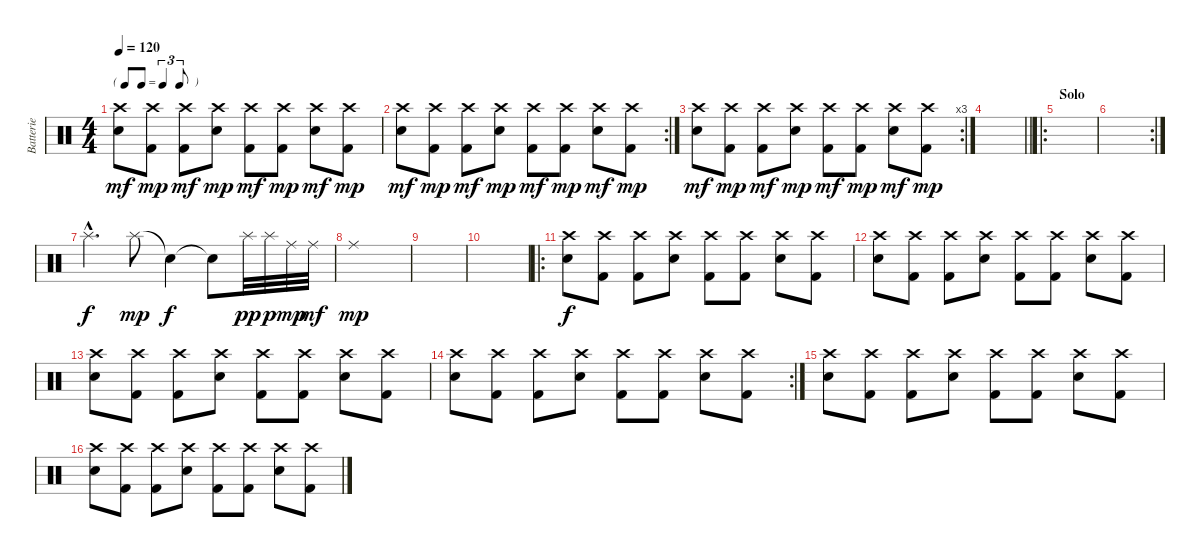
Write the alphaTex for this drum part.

\track ("Batterie" "Batterie") {instrument percussion}
\staff {score}
\articulation defaults
\ts (4 4)
\tf triplet8th
\tempo 120
\clef neutral
\ks c
("Snare (hit) 2" "Crash high (hit)").8{dy mf} ("Kick (hit) 2" "Crash high (hit)").8{dy mp} ("Crash high (hit)" "Kick (hit) 2").8{dy mf} ("Snare (hit) 2" "Crash high (hit)").8{dy mp} ("Kick (hit) 2" "Crash high (hit)").8{dy mf} ("Kick (hit) 2" "Crash high (hit)").8{dy mp} ("Snare (hit) 2" "Crash high (hit)").8{dy mf} ("Crash high (hit)" "Kick (hit) 2").8{dy mp} |
\rc 2
("Snare (hit) 2" "Crash high (hit)").8{dy mf} ("Kick (hit) 2" "Crash high (hit)").8{dy mp} ("Crash high (hit)" "Kick (hit) 2").8{dy mf} ("Snare (hit) 2" "Crash high (hit)").8{dy mp} ("Kick (hit) 2" "Crash high (hit)").8{dy mf} ("Kick (hit) 2" "Crash high (hit)").8{dy mp} ("Snare (hit) 2" "Crash high (hit)").8{dy mf} ("Crash high (hit)" "Kick (hit) 2").8{dy mp} |
\rc 3
("Snare (hit) 2" "Crash high (hit)").8{dy mf} ("Kick (hit) 2" "Crash high (hit)").8{dy mp} ("Crash high (hit)" "Kick (hit) 2").8{dy mf} ("Snare (hit) 2" "Crash high (hit)").8{dy mp} ("Kick (hit) 2" "Crash high (hit)").8{dy mf} ("Kick (hit) 2" "Crash high (hit)").8{dy mp} ("Snare (hit) 2" "Crash high (hit)").8{dy mf} ("Crash high (hit)" "Kick (hit) 2").8{dy mp} |
\barLineRight lightlight
|
\ro
\section ("" "Solo")
|
\rc 2
|
"Splash (hit)"{hac}.4{d dy f} "Splash (hit)".8{dy mp} "Snare (hit)"{t}.4{dy f} "Snare (hit)"{t}.8 "Splash (hit)".32{dy pp} "Splash (hit)".32{dy p} "Ride (middle)".32{dy mp} "Ride (middle)".32{dy mf} |
"Ride (middle)".1{dy mp} |
|
|
\ro
("Snare (hit) 2" "Crash high (hit)").8{dy f} ("Kick (hit) 2" "Crash high (hit)").8 ("Crash high (hit)" "Kick (hit) 2").8 ("Snare (hit) 2" "Crash high (hit)").8 ("Kick (hit) 2" "Crash high (hit)").8 ("Kick (hit) 2" "Crash high (hit)").8 ("Snare (hit) 2" "Crash high (hit)").8 ("Crash high (hit)" "Kick (hit) 2").8 |
("Snare (hit) 2" "Crash high (hit)").8 ("Kick (hit) 2" "Crash high (hit)").8 ("Crash high (hit)" "Kick (hit) 2").8 ("Snare (hit) 2" "Crash high (hit)").8 ("Kick (hit) 2" "Crash high (hit)").8 ("Kick (hit) 2" "Crash high (hit)").8 ("Snare (hit) 2" "Crash high (hit)").8 ("Crash high (hit)" "Kick (hit) 2").8 |
("Snare (hit) 2" "Crash high (hit)").8 ("Kick (hit) 2" "Crash high (hit)").8 ("Crash high (hit)" "Kick (hit) 2").8 ("Snare (hit) 2" "Crash high (hit)").8 ("Kick (hit) 2" "Crash high (hit)").8 ("Kick (hit) 2" "Crash high (hit)").8 ("Snare (hit) 2" "Crash high (hit)").8 ("Crash high (hit)" "Kick (hit) 2").8 |
\rc 2
("Snare (hit) 2" "Crash high (hit)").8 ("Kick (hit) 2" "Crash high (hit)").8 ("Crash high (hit)" "Kick (hit) 2").8 ("Snare (hit) 2" "Crash high (hit)").8 ("Kick (hit) 2" "Crash high (hit)").8 ("Kick (hit) 2" "Crash high (hit)").8 ("Snare (hit) 2" "Crash high (hit)").8 ("Crash high (hit)" "Kick (hit) 2").8 |
("Snare (hit) 2" "Crash high (hit)").8 ("Kick (hit) 2" "Crash high (hit)").8 ("Crash high (hit)" "Kick (hit) 2").8 ("Snare (hit) 2" "Crash high (hit)").8 ("Kick (hit) 2" "Crash high (hit)").8 ("Kick (hit) 2" "Crash high (hit)").8 ("Snare (hit) 2" "Crash high (hit)").8 ("Crash high (hit)" "Kick (hit) 2").8 |
("Snare (hit) 2" "Crash high (hit)").8 ("Kick (hit) 2" "Crash high (hit)").8 ("Crash high (hit)" "Kick (hit) 2").8 ("Snare (hit) 2" "Crash high (hit)").8 ("Kick (hit) 2" "Crash high (hit)").8 ("Kick (hit) 2" "Crash high (hit)").8 ("Snare (hit) 2" "Crash high (hit)").8 ("Crash high (hit)" "Kick (hit) 2").8
